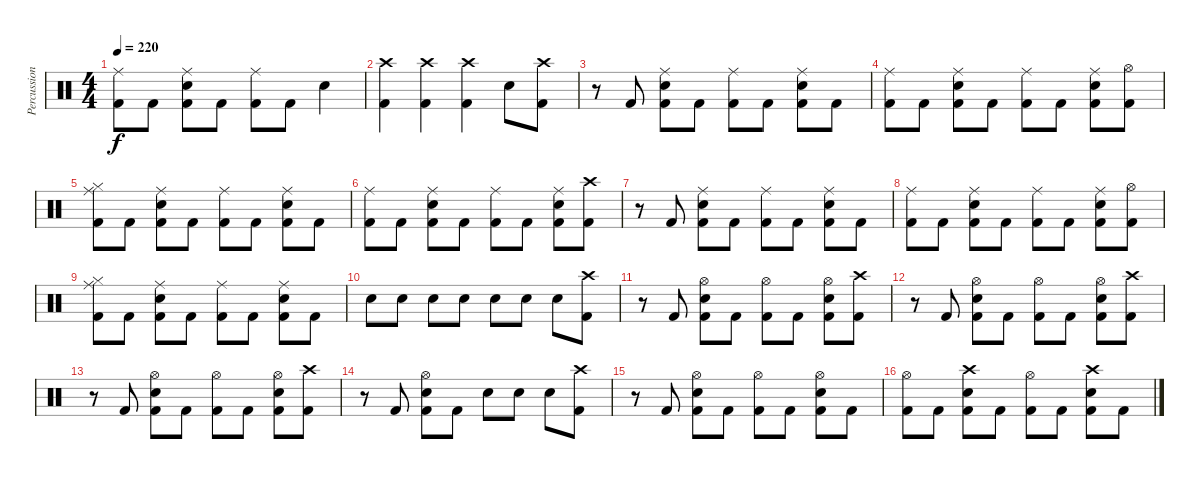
\track ("Percussions" "Percussion") {instrument percussion}
\staff {score}
\articulation defaults
\ts (4 4)
\tempo 220
\clef neutral
\ks c
("Ride (middle)" "Kick (hit) 2").8{dy f} "Kick (hit) 2".8 ("Ride (middle)" "Electric Snare (hit)" "Kick (hit) 2").8 "Kick (hit) 2".8 ("Ride (middle)" "Kick (hit) 2").8 "Kick (hit) 2".8 "Electric Snare (hit)".4 |
("Crash high (hit)" "Kick (hit) 2").4 ("Crash high (hit)" "Kick (hit) 2").4 ("Crash high (hit)" "Kick (hit) 2").4 "Electric Snare (hit)".8 ("Crash high (hit)" "Kick (hit) 2").8 |
r.8 "Kick (hit) 2".8 ("Ride (middle)" "Electric Snare (hit)" "Kick (hit) 2").8 "Kick (hit) 2".8 ("Ride (middle)" "Kick (hit) 2").8 "Kick (hit) 2".8 ("Ride (middle)" "Electric Snare (hit)" "Kick (hit) 2").8 "Kick (hit) 2".8 |
("Ride (middle)" "Kick (hit) 2").8 "Kick (hit) 2".8 ("Ride (middle)" "Electric Snare (hit)" "Kick (hit) 2").8 "Kick (hit) 2".8 ("Ride (middle)" "Kick (hit) 2").8 "Kick (hit) 2".8 ("Ride (middle)" "Electric Snare (hit)" "Kick (hit) 2").8 ("Hi-Hat (open)" "Kick (hit) 2").8 |
("Ride (middle)" "Hi-Hat (closed)" "Kick (hit) 2").8 "Kick (hit) 2".8 ("Ride (middle)" "Electric Snare (hit)" "Kick (hit) 2").8 "Kick (hit) 2".8 ("Ride (middle)" "Kick (hit) 2").8 "Kick (hit) 2".8 ("Ride (middle)" "Electric Snare (hit)" "Kick (hit) 2").8 "Kick (hit) 2".8 |
("Ride (middle)" "Kick (hit) 2").8 "Kick (hit) 2".8 ("Ride (middle)" "Electric Snare (hit)" "Kick (hit) 2").8 "Kick (hit) 2".8 ("Ride (middle)" "Kick (hit) 2").8 "Kick (hit) 2".8 ("Ride (middle)" "Electric Snare (hit)" "Kick (hit) 2").8 ("Crash high (hit)" "Kick (hit) 2").8 |
r.8 "Kick (hit) 2".8 ("Ride (middle)" "Electric Snare (hit)" "Kick (hit) 2").8 "Kick (hit) 2".8 ("Ride (middle)" "Kick (hit) 2").8 "Kick (hit) 2".8 ("Ride (middle)" "Electric Snare (hit)" "Kick (hit) 2").8 "Kick (hit) 2".8 |
("Ride (middle)" "Kick (hit) 2").8 "Kick (hit) 2".8 ("Ride (middle)" "Electric Snare (hit)" "Kick (hit) 2").8 "Kick (hit) 2".8 ("Ride (middle)" "Kick (hit) 2").8 "Kick (hit) 2".8 ("Ride (middle)" "Electric Snare (hit)" "Kick (hit) 2").8 ("Hi-Hat (open)" "Kick (hit) 2").8 |
("Ride (middle)" "Hi-Hat (closed)" "Kick (hit) 2").8 "Kick (hit) 2".8 ("Ride (middle)" "Electric Snare (hit)" "Kick (hit) 2").8 "Kick (hit) 2".8 ("Ride (middle)" "Kick (hit) 2").8 "Kick (hit) 2".8 ("Ride (middle)" "Electric Snare (hit)" "Kick (hit) 2").8 "Kick (hit) 2".8 |
"Electric Snare (hit)".8 "Electric Snare (hit)".8 "Electric Snare (hit)".8 "Electric Snare (hit)".8 "Electric Snare (hit)".8 "Electric Snare (hit)".8 "Electric Snare (hit)".8 ("Crash high (hit)" "Kick (hit) 2").8 |
r.8 "Kick (hit) 2".8 ("Hi-Hat (open)" "Electric Snare (hit)" "Kick (hit) 2").8 "Kick (hit) 2".8 ("Hi-Hat (open)" "Kick (hit) 2").8 "Kick (hit) 2".8 ("Hi-Hat (open)" "Electric Snare (hit)" "Kick (hit) 2").8 ("Crash high (hit)" "Kick (hit) 2").8 |
r.8 "Kick (hit) 2".8 ("Hi-Hat (open)" "Electric Snare (hit)" "Kick (hit) 2").8 "Kick (hit) 2".8 ("Hi-Hat (open)" "Kick (hit) 2").8 "Kick (hit) 2".8 ("Hi-Hat (open)" "Electric Snare (hit)" "Kick (hit) 2").8 ("Crash high (hit)" "Kick (hit) 2").8 |
r.8 "Kick (hit) 2".8 ("Hi-Hat (open)" "Electric Snare (hit)" "Kick (hit) 2").8 "Kick (hit) 2".8 ("Hi-Hat (open)" "Kick (hit) 2").8 "Kick (hit) 2".8 ("Hi-Hat (open)" "Electric Snare (hit)" "Kick (hit) 2").8 ("Crash high (hit)" "Kick (hit) 2").8 |
r.8 "Kick (hit) 2".8 ("Hi-Hat (open)" "Electric Snare (hit)" "Kick (hit) 2").8 "Kick (hit) 2".8 "Electric Snare (hit)".8 "Electric Snare (hit)".8 "Electric Snare (hit)".8 ("Crash high (hit)" "Kick (hit) 2").8 |
r.8 "Kick (hit) 2".8 ("Hi-Hat (open)" "Electric Snare (hit)" "Kick (hit) 2").8 "Kick (hit) 2".8 ("Hi-Hat (open)" "Kick (hit) 2").8 "Kick (hit) 2".8 ("Hi-Hat (open)" "Electric Snare (hit)" "Kick (hit) 2").8 "Kick (hit) 2".8 |
("Hi-Hat (open)" "Kick (hit) 2").8 "Kick (hit) 2".8 ("Crash high (hit)" "Electric Snare (hit)" "Kick (hit) 2").8 "Kick (hit) 2".8 ("Hi-Hat (open)" "Kick (hit) 2").8 "Kick (hit) 2".8 ("Crash high (hit)" "Electric Snare (hit)" "Kick (hit) 2").8 "Kick (hit) 2".8
